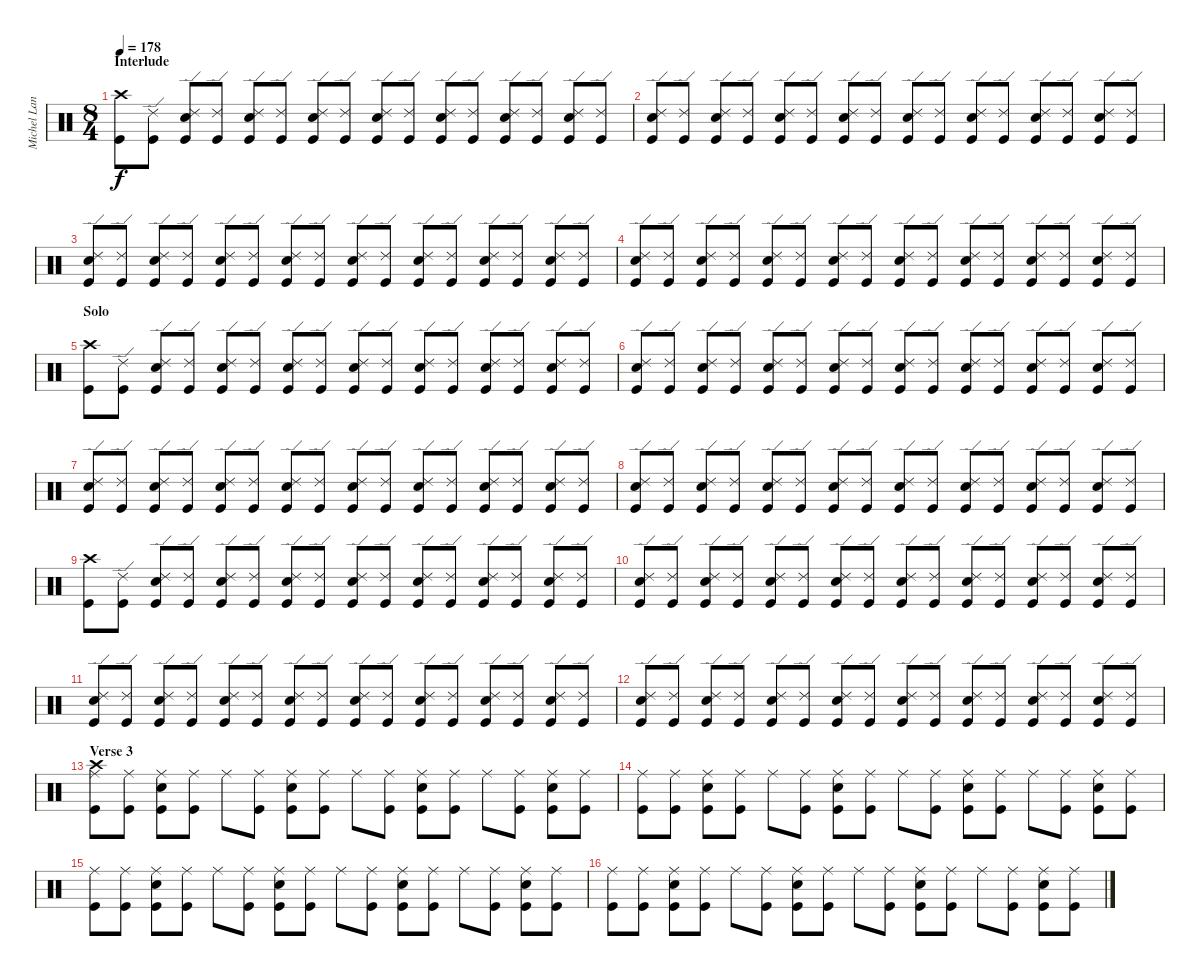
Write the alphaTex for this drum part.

\track ("Michel Langevin [Drums]" "Michel Lan") {instrument percussion}
\staff {score}
\articulation defaults
\ts (8 4)
\section ("" "Interlude")
\tempo 178
\clef neutral
\ks c
("Kick (hit)" "Crash high (hit)").8{dy f} ("Kick (hit)" "Ride (edge) 2").8 ("Snare (hit) 2" "Kick (hit)" "Ride (edge) 2").8 ("Kick (hit)" "Ride (edge) 2").8 ("Snare (hit) 2" "Kick (hit)" "Ride (edge) 2").8 ("Kick (hit)" "Ride (edge) 2").8 ("Snare (hit) 2" "Kick (hit)" "Ride (edge) 2").8 ("Kick (hit)" "Ride (edge) 2").8 ("Snare (hit) 2" "Kick (hit)" "Ride (edge) 2").8 ("Kick (hit)" "Ride (edge) 2").8 ("Snare (hit) 2" "Kick (hit)" "Ride (edge) 2").8 ("Kick (hit)" "Ride (edge) 2").8 ("Snare (hit) 2" "Kick (hit)" "Ride (edge) 2").8 ("Kick (hit)" "Ride (edge) 2").8 ("Snare (hit) 2" "Kick (hit)" "Ride (edge) 2").8 ("Kick (hit)" "Ride (edge) 2").8 |
("Snare (hit) 2" "Kick (hit)" "Ride (edge) 2").8 ("Kick (hit)" "Ride (edge) 2").8 ("Snare (hit) 2" "Kick (hit)" "Ride (edge) 2").8 ("Kick (hit)" "Ride (edge) 2").8 ("Snare (hit) 2" "Kick (hit)" "Ride (edge) 2").8 ("Kick (hit)" "Ride (edge) 2").8 ("Snare (hit) 2" "Kick (hit)" "Ride (edge) 2").8 ("Kick (hit)" "Ride (edge) 2").8 ("Snare (hit) 2" "Kick (hit)" "Ride (edge) 2").8 ("Kick (hit)" "Ride (edge) 2").8 ("Snare (hit) 2" "Kick (hit)" "Ride (edge) 2").8 ("Kick (hit)" "Ride (edge) 2").8 ("Snare (hit) 2" "Kick (hit)" "Ride (edge) 2").8 ("Kick (hit)" "Ride (edge) 2").8 ("Snare (hit) 2" "Kick (hit)" "Ride (edge) 2").8 ("Kick (hit)" "Ride (edge) 2").8 |
("Snare (hit) 2" "Kick (hit)" "Ride (edge) 2").8 ("Kick (hit)" "Ride (edge) 2").8 ("Snare (hit) 2" "Kick (hit)" "Ride (edge) 2").8 ("Kick (hit)" "Ride (edge) 2").8 ("Snare (hit) 2" "Kick (hit)" "Ride (edge) 2").8 ("Kick (hit)" "Ride (edge) 2").8 ("Snare (hit) 2" "Kick (hit)" "Ride (edge) 2").8 ("Kick (hit)" "Ride (edge) 2").8 ("Snare (hit) 2" "Kick (hit)" "Ride (edge) 2").8 ("Kick (hit)" "Ride (edge) 2").8 ("Snare (hit) 2" "Kick (hit)" "Ride (edge) 2").8 ("Kick (hit)" "Ride (edge) 2").8 ("Snare (hit) 2" "Kick (hit)" "Ride (edge) 2").8 ("Kick (hit)" "Ride (edge) 2").8 ("Snare (hit) 2" "Kick (hit)" "Ride (edge) 2").8 ("Kick (hit)" "Ride (edge) 2").8 |
("Snare (hit) 2" "Kick (hit)" "Ride (edge) 2").8 ("Kick (hit)" "Ride (edge) 2").8 ("Snare (hit) 2" "Kick (hit)" "Ride (edge) 2").8 ("Kick (hit)" "Ride (edge) 2").8 ("Snare (hit) 2" "Kick (hit)" "Ride (edge) 2").8 ("Kick (hit)" "Ride (edge) 2").8 ("Snare (hit) 2" "Kick (hit)" "Ride (edge) 2").8 ("Kick (hit)" "Ride (edge) 2").8 ("Snare (hit) 2" "Kick (hit)" "Ride (edge) 2").8 ("Kick (hit)" "Ride (edge) 2").8 ("Snare (hit) 2" "Kick (hit)" "Ride (edge) 2").8 ("Kick (hit)" "Ride (edge) 2").8 ("Snare (hit) 2" "Kick (hit)" "Ride (edge) 2").8 ("Kick (hit)" "Ride (edge) 2").8 ("Snare (hit) 2" "Kick (hit)" "Ride (edge) 2").8 ("Kick (hit)" "Ride (edge) 2").8 |
\section ("" "Solo")
("Kick (hit)" "Crash high (hit)").8 ("Kick (hit)" "Ride (edge) 2").8 ("Snare (hit) 2" "Kick (hit)" "Ride (edge) 2").8 ("Kick (hit)" "Ride (edge) 2").8 ("Snare (hit) 2" "Kick (hit)" "Ride (edge) 2").8 ("Kick (hit)" "Ride (edge) 2").8 ("Snare (hit) 2" "Kick (hit)" "Ride (edge) 2").8 ("Kick (hit)" "Ride (edge) 2").8 ("Snare (hit) 2" "Kick (hit)" "Ride (edge) 2").8 ("Kick (hit)" "Ride (edge) 2").8 ("Snare (hit) 2" "Kick (hit)" "Ride (edge) 2").8 ("Kick (hit)" "Ride (edge) 2").8 ("Snare (hit) 2" "Kick (hit)" "Ride (edge) 2").8 ("Kick (hit)" "Ride (edge) 2").8 ("Snare (hit) 2" "Kick (hit)" "Ride (edge) 2").8 ("Kick (hit)" "Ride (edge) 2").8 |
("Snare (hit) 2" "Kick (hit)" "Ride (edge) 2").8 ("Kick (hit)" "Ride (edge) 2").8 ("Snare (hit) 2" "Kick (hit)" "Ride (edge) 2").8 ("Kick (hit)" "Ride (edge) 2").8 ("Snare (hit) 2" "Kick (hit)" "Ride (edge) 2").8 ("Kick (hit)" "Ride (edge) 2").8 ("Snare (hit) 2" "Kick (hit)" "Ride (edge) 2").8 ("Kick (hit)" "Ride (edge) 2").8 ("Snare (hit) 2" "Kick (hit)" "Ride (edge) 2").8 ("Kick (hit)" "Ride (edge) 2").8 ("Snare (hit) 2" "Kick (hit)" "Ride (edge) 2").8 ("Kick (hit)" "Ride (edge) 2").8 ("Snare (hit) 2" "Kick (hit)" "Ride (edge) 2").8 ("Kick (hit)" "Ride (edge) 2").8 ("Snare (hit) 2" "Kick (hit)" "Ride (edge) 2").8 ("Kick (hit)" "Ride (edge) 2").8 |
("Snare (hit) 2" "Kick (hit)" "Ride (edge) 2").8 ("Kick (hit)" "Ride (edge) 2").8 ("Snare (hit) 2" "Kick (hit)" "Ride (edge) 2").8 ("Kick (hit)" "Ride (edge) 2").8 ("Snare (hit) 2" "Kick (hit)" "Ride (edge) 2").8 ("Kick (hit)" "Ride (edge) 2").8 ("Snare (hit) 2" "Kick (hit)" "Ride (edge) 2").8 ("Kick (hit)" "Ride (edge) 2").8 ("Snare (hit) 2" "Kick (hit)" "Ride (edge) 2").8 ("Kick (hit)" "Ride (edge) 2").8 ("Snare (hit) 2" "Kick (hit)" "Ride (edge) 2").8 ("Kick (hit)" "Ride (edge) 2").8 ("Snare (hit) 2" "Kick (hit)" "Ride (edge) 2").8 ("Kick (hit)" "Ride (edge) 2").8 ("Snare (hit) 2" "Kick (hit)" "Ride (edge) 2").8 ("Kick (hit)" "Ride (edge) 2").8 |
("Snare (hit) 2" "Kick (hit)" "Ride (edge) 2").8 ("Kick (hit)" "Ride (edge) 2").8 ("Snare (hit) 2" "Kick (hit)" "Ride (edge) 2").8 ("Kick (hit)" "Ride (edge) 2").8 ("Snare (hit) 2" "Kick (hit)" "Ride (edge) 2").8 ("Kick (hit)" "Ride (edge) 2").8 ("Snare (hit) 2" "Kick (hit)" "Ride (edge) 2").8 ("Kick (hit)" "Ride (edge) 2").8 ("Snare (hit) 2" "Kick (hit)" "Ride (edge) 2").8 ("Kick (hit)" "Ride (edge) 2").8 ("Snare (hit) 2" "Kick (hit)" "Ride (edge) 2").8 ("Kick (hit)" "Ride (edge) 2").8 ("Snare (hit) 2" "Kick (hit)" "Ride (edge) 2").8 ("Kick (hit)" "Ride (edge) 2").8 ("Snare (hit) 2" "Kick (hit)" "Ride (edge) 2").8 ("Kick (hit)" "Ride (edge) 2").8 |
("Kick (hit)" "Crash high (hit)").8 ("Kick (hit)" "Ride (edge) 2").8 ("Snare (hit) 2" "Kick (hit)" "Ride (edge) 2").8 ("Kick (hit)" "Ride (edge) 2").8 ("Snare (hit) 2" "Kick (hit)" "Ride (edge) 2").8 ("Kick (hit)" "Ride (edge) 2").8 ("Snare (hit) 2" "Kick (hit)" "Ride (edge) 2").8 ("Kick (hit)" "Ride (edge) 2").8 ("Snare (hit) 2" "Kick (hit)" "Ride (edge) 2").8 ("Kick (hit)" "Ride (edge) 2").8 ("Snare (hit) 2" "Kick (hit)" "Ride (edge) 2").8 ("Kick (hit)" "Ride (edge) 2").8 ("Snare (hit) 2" "Kick (hit)" "Ride (edge) 2").8 ("Kick (hit)" "Ride (edge) 2").8 ("Snare (hit) 2" "Kick (hit)" "Ride (edge) 2").8 ("Kick (hit)" "Ride (edge) 2").8 |
("Snare (hit) 2" "Kick (hit)" "Ride (edge) 2").8 ("Kick (hit)" "Ride (edge) 2").8 ("Snare (hit) 2" "Kick (hit)" "Ride (edge) 2").8 ("Kick (hit)" "Ride (edge) 2").8 ("Snare (hit) 2" "Kick (hit)" "Ride (edge) 2").8 ("Kick (hit)" "Ride (edge) 2").8 ("Snare (hit) 2" "Kick (hit)" "Ride (edge) 2").8 ("Kick (hit)" "Ride (edge) 2").8 ("Snare (hit) 2" "Kick (hit)" "Ride (edge) 2").8 ("Kick (hit)" "Ride (edge) 2").8 ("Snare (hit) 2" "Kick (hit)" "Ride (edge) 2").8 ("Kick (hit)" "Ride (edge) 2").8 ("Snare (hit) 2" "Kick (hit)" "Ride (edge) 2").8 ("Kick (hit)" "Ride (edge) 2").8 ("Snare (hit) 2" "Kick (hit)" "Ride (edge) 2").8 ("Kick (hit)" "Ride (edge) 2").8 |
("Snare (hit) 2" "Kick (hit)" "Ride (edge) 2").8 ("Kick (hit)" "Ride (edge) 2").8 ("Snare (hit) 2" "Kick (hit)" "Ride (edge) 2").8 ("Kick (hit)" "Ride (edge) 2").8 ("Snare (hit) 2" "Kick (hit)" "Ride (edge) 2").8 ("Kick (hit)" "Ride (edge) 2").8 ("Snare (hit) 2" "Kick (hit)" "Ride (edge) 2").8 ("Kick (hit)" "Ride (edge) 2").8 ("Snare (hit) 2" "Kick (hit)" "Ride (edge) 2").8 ("Kick (hit)" "Ride (edge) 2").8 ("Snare (hit) 2" "Kick (hit)" "Ride (edge) 2").8 ("Kick (hit)" "Ride (edge) 2").8 ("Snare (hit) 2" "Kick (hit)" "Ride (edge) 2").8 ("Kick (hit)" "Ride (edge) 2").8 ("Snare (hit) 2" "Kick (hit)" "Ride (edge) 2").8 ("Kick (hit)" "Ride (edge) 2").8 |
("Snare (hit) 2" "Kick (hit)" "Ride (edge) 2").8 ("Kick (hit)" "Ride (edge) 2").8 ("Snare (hit) 2" "Kick (hit)" "Ride (edge) 2").8 ("Kick (hit)" "Ride (edge) 2").8 ("Snare (hit) 2" "Kick (hit)" "Ride (edge) 2").8 ("Kick (hit)" "Ride (edge) 2").8 ("Snare (hit) 2" "Kick (hit)" "Ride (edge) 2").8 ("Kick (hit)" "Ride (edge) 2").8 ("Snare (hit) 2" "Kick (hit)" "Ride (edge) 2").8 ("Kick (hit)" "Ride (edge) 2").8 ("Snare (hit) 2" "Kick (hit)" "Ride (edge) 2").8 ("Kick (hit)" "Ride (edge) 2").8 ("Snare (hit) 2" "Kick (hit)" "Ride (edge) 2").8 ("Kick (hit)" "Ride (edge) 2").8 ("Snare (hit) 2" "Kick (hit)" "Ride (edge) 2").8 ("Kick (hit)" "Ride (edge) 2").8 |
\section ("" "Verse 3")
("Kick (hit)" "Ride (middle)" "Crash high (hit)").8 ("Kick (hit)" "Ride (middle)").8 ("Snare (hit) 2" "Kick (hit)" "Ride (middle)").8 ("Kick (hit)" "Ride (middle)").8 "Ride (middle)".8 ("Kick (hit)" "Ride (middle)").8 ("Snare (hit) 2" "Kick (hit)" "Ride (middle)").8 ("Kick (hit)" "Ride (middle)").8 "Ride (middle)".8 ("Kick (hit)" "Ride (middle)").8 ("Snare (hit) 2" "Kick (hit)" "Ride (middle)").8 ("Kick (hit)" "Ride (middle)").8 "Ride (middle)".8 ("Kick (hit)" "Ride (middle)").8 ("Snare (hit) 2" "Kick (hit)" "Ride (middle)").8 ("Kick (hit)" "Ride (middle)").8 |
("Kick (hit)" "Ride (middle)").8 ("Kick (hit)" "Ride (middle)").8 ("Snare (hit) 2" "Kick (hit)" "Ride (middle)").8 ("Kick (hit)" "Ride (middle)").8 "Ride (middle)".8 ("Kick (hit)" "Ride (middle)").8 ("Snare (hit) 2" "Kick (hit)" "Ride (middle)").8 ("Kick (hit)" "Ride (middle)").8 "Ride (middle)".8 ("Kick (hit)" "Ride (middle)").8 ("Snare (hit) 2" "Kick (hit)" "Ride (middle)").8 ("Kick (hit)" "Ride (middle)").8 "Ride (middle)".8 ("Kick (hit)" "Ride (middle)").8 ("Snare (hit) 2" "Kick (hit)" "Ride (middle)").8 ("Kick (hit)" "Ride (middle)").8 |
("Kick (hit)" "Ride (middle)").8 ("Kick (hit)" "Ride (middle)").8 ("Snare (hit) 2" "Kick (hit)" "Ride (middle)").8 ("Kick (hit)" "Ride (middle)").8 "Ride (middle)".8 ("Kick (hit)" "Ride (middle)").8 ("Snare (hit) 2" "Kick (hit)" "Ride (middle)").8 ("Kick (hit)" "Ride (middle)").8 "Ride (middle)".8 ("Kick (hit)" "Ride (middle)").8 ("Snare (hit) 2" "Kick (hit)" "Ride (middle)").8 ("Kick (hit)" "Ride (middle)").8 "Ride (middle)".8 ("Kick (hit)" "Ride (middle)").8 ("Snare (hit) 2" "Kick (hit)" "Ride (middle)").8 ("Kick (hit)" "Ride (middle)").8 |
("Kick (hit)" "Ride (middle)").8 ("Kick (hit)" "Ride (middle)").8 ("Snare (hit) 2" "Kick (hit)" "Ride (middle)").8 ("Kick (hit)" "Ride (middle)").8 "Ride (middle)".8 ("Kick (hit)" "Ride (middle)").8 ("Snare (hit) 2" "Kick (hit)" "Ride (middle)").8 ("Kick (hit)" "Ride (middle)").8 "Ride (middle)".8 ("Kick (hit)" "Ride (middle)").8 ("Snare (hit) 2" "Kick (hit)" "Ride (middle)").8 ("Kick (hit)" "Ride (middle)").8 "Ride (middle)".8 ("Kick (hit)" "Ride (middle)").8 ("Snare (hit) 2" "Kick (hit)" "Ride (middle)").8 ("Kick (hit)" "Ride (middle)").8
